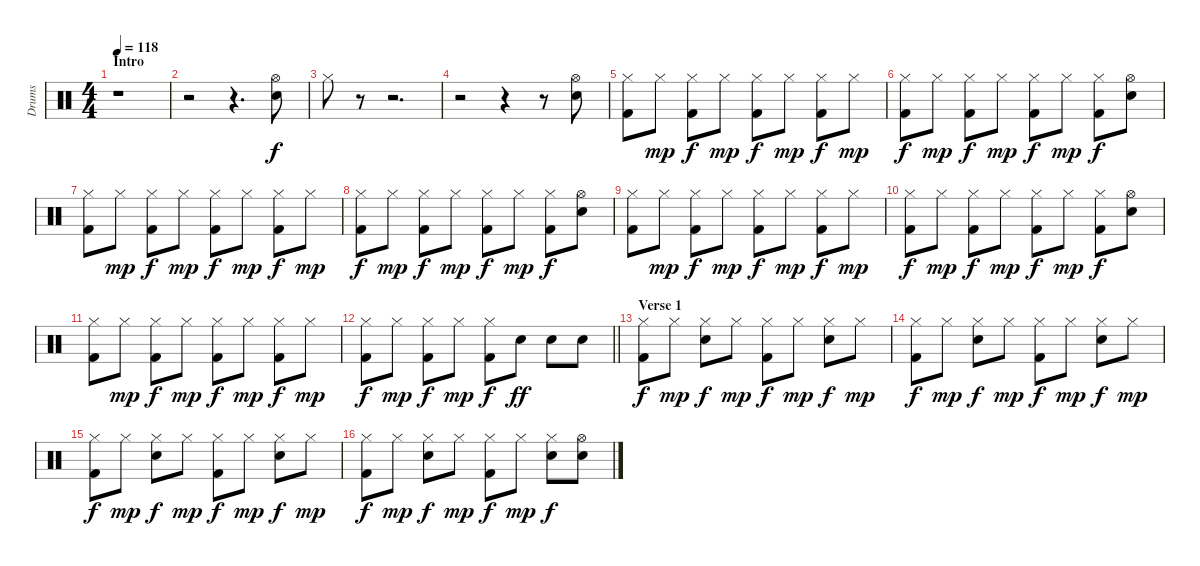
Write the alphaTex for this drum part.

\track ("Drums" "Drums") {instrument percussion}
\staff {score}
\articulation defaults
\ts (4 4)
\section ("" "Intro")
\tempo 118
\clef neutral
\ks c
r.1{dy f} |
r.2 r.4{d} ("Hi-Hat (open)" "Snare (hit) 2").8 |
"Hi-Hat (closed)".8 r.8 r.2{d} |
r.2 r.4 r.8 ("Hi-Hat (open)" "Snare (hit) 2").8 |
("Hi-Hat (closed)" "Kick (hit) 2").8 "Hi-Hat (closed)".8{dy mp} ("Hi-Hat (closed)" "Kick (hit) 2").8{dy f} "Hi-Hat (closed)".8{dy mp} ("Hi-Hat (closed)" "Kick (hit) 2").8{dy f} "Hi-Hat (closed)".8{dy mp} ("Hi-Hat (closed)" "Kick (hit) 2").8{dy f} "Hi-Hat (closed)".8{dy mp} |
("Hi-Hat (closed)" "Kick (hit) 2").8{dy f} "Hi-Hat (closed)".8{dy mp} ("Hi-Hat (closed)" "Kick (hit) 2").8{dy f} "Hi-Hat (closed)".8{dy mp} ("Hi-Hat (closed)" "Kick (hit) 2").8{dy f} "Hi-Hat (closed)".8{dy mp} ("Hi-Hat (closed)" "Kick (hit) 2").8{dy f} ("Hi-Hat (open)" "Snare (hit) 2").8 |
("Hi-Hat (closed)" "Kick (hit) 2").8 "Hi-Hat (closed)".8{dy mp} ("Hi-Hat (closed)" "Kick (hit) 2").8{dy f} "Hi-Hat (closed)".8{dy mp} ("Hi-Hat (closed)" "Kick (hit) 2").8{dy f} "Hi-Hat (closed)".8{dy mp} ("Hi-Hat (closed)" "Kick (hit) 2").8{dy f} "Hi-Hat (closed)".8{dy mp} |
("Hi-Hat (closed)" "Kick (hit) 2").8{dy f} "Hi-Hat (closed)".8{dy mp} ("Hi-Hat (closed)" "Kick (hit) 2").8{dy f} "Hi-Hat (closed)".8{dy mp} ("Hi-Hat (closed)" "Kick (hit) 2").8{dy f} "Hi-Hat (closed)".8{dy mp} ("Hi-Hat (closed)" "Kick (hit) 2").8{dy f} ("Hi-Hat (open)" "Snare (hit) 2").8 |
("Hi-Hat (closed)" "Kick (hit) 2").8 "Hi-Hat (closed)".8{dy mp} ("Hi-Hat (closed)" "Kick (hit) 2").8{dy f} "Hi-Hat (closed)".8{dy mp} ("Hi-Hat (closed)" "Kick (hit) 2").8{dy f} "Hi-Hat (closed)".8{dy mp} ("Hi-Hat (closed)" "Kick (hit) 2").8{dy f} "Hi-Hat (closed)".8{dy mp} |
("Hi-Hat (closed)" "Kick (hit) 2").8{dy f} "Hi-Hat (closed)".8{dy mp} ("Hi-Hat (closed)" "Kick (hit) 2").8{dy f} "Hi-Hat (closed)".8{dy mp} ("Hi-Hat (closed)" "Kick (hit) 2").8{dy f} "Hi-Hat (closed)".8{dy mp} ("Hi-Hat (closed)" "Kick (hit) 2").8{dy f} ("Hi-Hat (open)" "Snare (hit) 2").8 |
("Hi-Hat (closed)" "Kick (hit) 2").8 "Hi-Hat (closed)".8{dy mp} ("Hi-Hat (closed)" "Kick (hit) 2").8{dy f} "Hi-Hat (closed)".8{dy mp} ("Hi-Hat (closed)" "Kick (hit) 2").8{dy f} "Hi-Hat (closed)".8{dy mp} ("Hi-Hat (closed)" "Kick (hit) 2").8{dy f} "Hi-Hat (closed)".8{dy mp} |
\barLineRight lightlight
("Hi-Hat (closed)" "Kick (hit) 2").8{dy f} "Hi-Hat (closed)".8{dy mp} ("Hi-Hat (closed)" "Kick (hit) 2").8{dy f} "Hi-Hat (closed)".8{dy mp} ("Hi-Hat (closed)" "Kick (hit) 2").8{dy f} "Hand Clap (hit)".8{dy ff} "Hand Clap (hit)".8 "Hand Clap (hit)".8 |
\section ("" "Verse 1")
("Hi-Hat (closed)" "Kick (hit) 2").8{dy f} "Hi-Hat (closed)".8{dy mp} ("Hi-Hat (closed)" "Snare (hit) 2").8{dy f} "Hi-Hat (closed)".8{dy mp} ("Hi-Hat (closed)" "Kick (hit) 2").8{dy f} "Hi-Hat (closed)".8{dy mp} ("Hi-Hat (closed)" "Snare (hit) 2").8{dy f} "Hi-Hat (closed)".8{dy mp} |
("Hi-Hat (closed)" "Kick (hit) 2").8{dy f} "Hi-Hat (closed)".8{dy mp} ("Hi-Hat (closed)" "Snare (hit) 2").8{dy f} "Hi-Hat (closed)".8{dy mp} ("Hi-Hat (closed)" "Kick (hit) 2").8{dy f} "Hi-Hat (closed)".8{dy mp} ("Hi-Hat (closed)" "Snare (hit) 2").8{dy f} "Hi-Hat (closed)".8{dy mp} |
("Hi-Hat (closed)" "Kick (hit) 2").8{dy f} "Hi-Hat (closed)".8{dy mp} ("Hi-Hat (closed)" "Snare (hit) 2").8{dy f} "Hi-Hat (closed)".8{dy mp} ("Hi-Hat (closed)" "Kick (hit) 2").8{dy f} "Hi-Hat (closed)".8{dy mp} ("Hi-Hat (closed)" "Snare (hit) 2").8{dy f} "Hi-Hat (closed)".8{dy mp} |
("Hi-Hat (closed)" "Kick (hit) 2").8{dy f} "Hi-Hat (closed)".8{dy mp} ("Hi-Hat (closed)" "Snare (hit) 2").8{dy f} "Hi-Hat (closed)".8{dy mp} ("Hi-Hat (closed)" "Kick (hit) 2").8{dy f} "Hi-Hat (closed)".8{dy mp} ("Hi-Hat (closed)" "Snare (hit) 2").8{dy f} ("Hi-Hat (open)" "Snare (hit) 2").8
